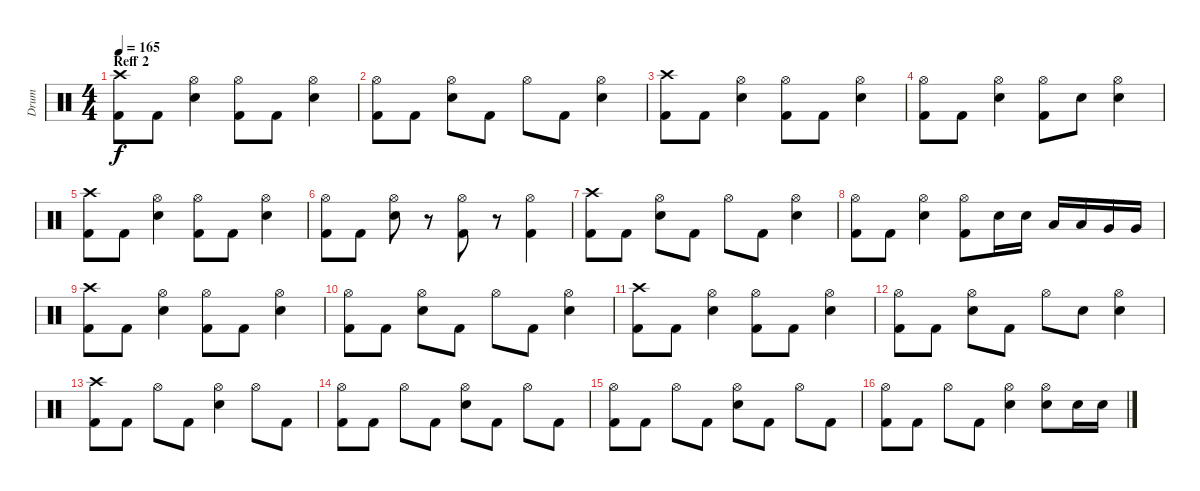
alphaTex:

\track ("Drum" "Drum") {instrument percussion}
\staff {score}
\articulation defaults
\ts (4 4)
\section ("" "Reff 2")
\tempo 165
\clef neutral
\ks c
("Crash high (hit)" "Kick (hit) 2").8{dy f} "Kick (hit) 2".8 ("Hi-Hat (open)" "Electric Snare (hit)").4 ("Hi-Hat (open)" "Kick (hit) 2").8 "Kick (hit) 2".8 ("Hi-Hat (open)" "Electric Snare (hit)").4 |
("Hi-Hat (open)" "Kick (hit) 2").8 "Kick (hit) 2".8 ("Hi-Hat (open)" "Electric Snare (hit)").8 "Kick (hit) 2".8 "Hi-Hat (open)".8 "Kick (hit) 2".8 ("Hi-Hat (open)" "Electric Snare (hit)").4 |
("Crash high (hit)" "Kick (hit) 2").8 "Kick (hit) 2".8 ("Hi-Hat (open)" "Electric Snare (hit)").4 ("Hi-Hat (open)" "Kick (hit) 2").8 "Kick (hit) 2".8 ("Hi-Hat (open)" "Electric Snare (hit)").4 |
("Hi-Hat (open)" "Kick (hit) 2").8 "Kick (hit) 2".8 ("Hi-Hat (open)" "Electric Snare (hit)").4 ("Hi-Hat (open)" "Kick (hit) 2").8 "Electric Snare (hit)".8 ("Hi-Hat (open)" "Electric Snare (hit)").4 |
("Crash high (hit)" "Kick (hit) 2").8 "Kick (hit) 2".8 ("Hi-Hat (open)" "Electric Snare (hit)").4 ("Hi-Hat (open)" "Kick (hit) 2").8 "Kick (hit) 2".8 ("Hi-Hat (open)" "Electric Snare (hit)").4 |
("Hi-Hat (open)" "Kick (hit) 2").8 "Kick (hit) 2".8 ("Hi-Hat (open)" "Electric Snare (hit)").8 r.8 ("Hi-Hat (open)" "Kick (hit) 2").8 r.8 ("Hi-Hat (open)" "Kick (hit) 2").4 |
("Crash high (hit)" "Kick (hit) 2").8 "Kick (hit) 2".8 ("Hi-Hat (open)" "Electric Snare (hit)").8 "Kick (hit) 2".8 "Hi-Hat (open)".8 "Kick (hit) 2".8 ("Hi-Hat (open)" "Electric Snare (hit)").4 |
("Hi-Hat (open)" "Kick (hit) 2").8 "Kick (hit) 2".8 ("Hi-Hat (open)" "Electric Snare (hit)").4 ("Hi-Hat (open)" "Kick (hit) 2").8 "Electric Snare (hit)".16 "Electric Snare (hit)".16 "Low Tom (hit)".16 "Low Tom (hit)".16 "Very Low Tom (hit)".16 "Very Low Tom (hit)".16 |
("Crash high (hit)" "Kick (hit) 2").8 "Kick (hit) 2".8 ("Hi-Hat (open)" "Electric Snare (hit)").4 ("Hi-Hat (open)" "Kick (hit) 2").8 "Kick (hit) 2".8 ("Hi-Hat (open)" "Electric Snare (hit)").4 |
("Hi-Hat (open)" "Kick (hit) 2").8 "Kick (hit) 2".8 ("Hi-Hat (open)" "Electric Snare (hit)").8 "Kick (hit) 2".8 "Hi-Hat (open)".8 "Kick (hit) 2".8 ("Hi-Hat (open)" "Electric Snare (hit)").4 |
("Crash high (hit)" "Kick (hit) 2").8 "Kick (hit) 2".8 ("Hi-Hat (open)" "Electric Snare (hit)").4 ("Hi-Hat (open)" "Kick (hit) 2").8 "Kick (hit) 2".8 ("Hi-Hat (open)" "Electric Snare (hit)").4 |
("Hi-Hat (open)" "Kick (hit) 2").8 "Kick (hit) 2".8 ("Hi-Hat (open)" "Electric Snare (hit)").8 "Kick (hit) 2".8 "Hi-Hat (open)".8 "Electric Snare (hit)".8 ("Hi-Hat (open)" "Electric Snare (hit)").4 |
("Crash high (hit)" "Kick (hit) 2").8 "Kick (hit) 2".8 "Hi-Hat (open)".8 "Kick (hit) 2".8 ("Hi-Hat (open)" "Electric Snare (hit)").4 "Hi-Hat (open)".8 "Kick (hit) 2".8 |
("Hi-Hat (open)" "Kick (hit) 2").8 "Kick (hit) 2".8 "Hi-Hat (open)".8 "Kick (hit) 2".8 ("Hi-Hat (open)" "Electric Snare (hit)").8 "Kick (hit) 2".8 "Hi-Hat (open)".8 "Kick (hit) 2".8 |
("Hi-Hat (open)" "Kick (hit) 2").8 "Kick (hit) 2".8 "Hi-Hat (open)".8 "Kick (hit) 2".8 ("Hi-Hat (open)" "Electric Snare (hit)").8 "Kick (hit) 2".8 "Hi-Hat (open)".8 "Kick (hit) 2".8 |
("Hi-Hat (open)" "Kick (hit) 2").8 "Kick (hit) 2".8 "Hi-Hat (open)".8 "Kick (hit) 2".8 ("Hi-Hat (open)" "Electric Snare (hit)").4 ("Hi-Hat (open)" "Electric Snare (hit)").8 "Electric Snare (hit)".16 "Electric Snare (hit)".16
